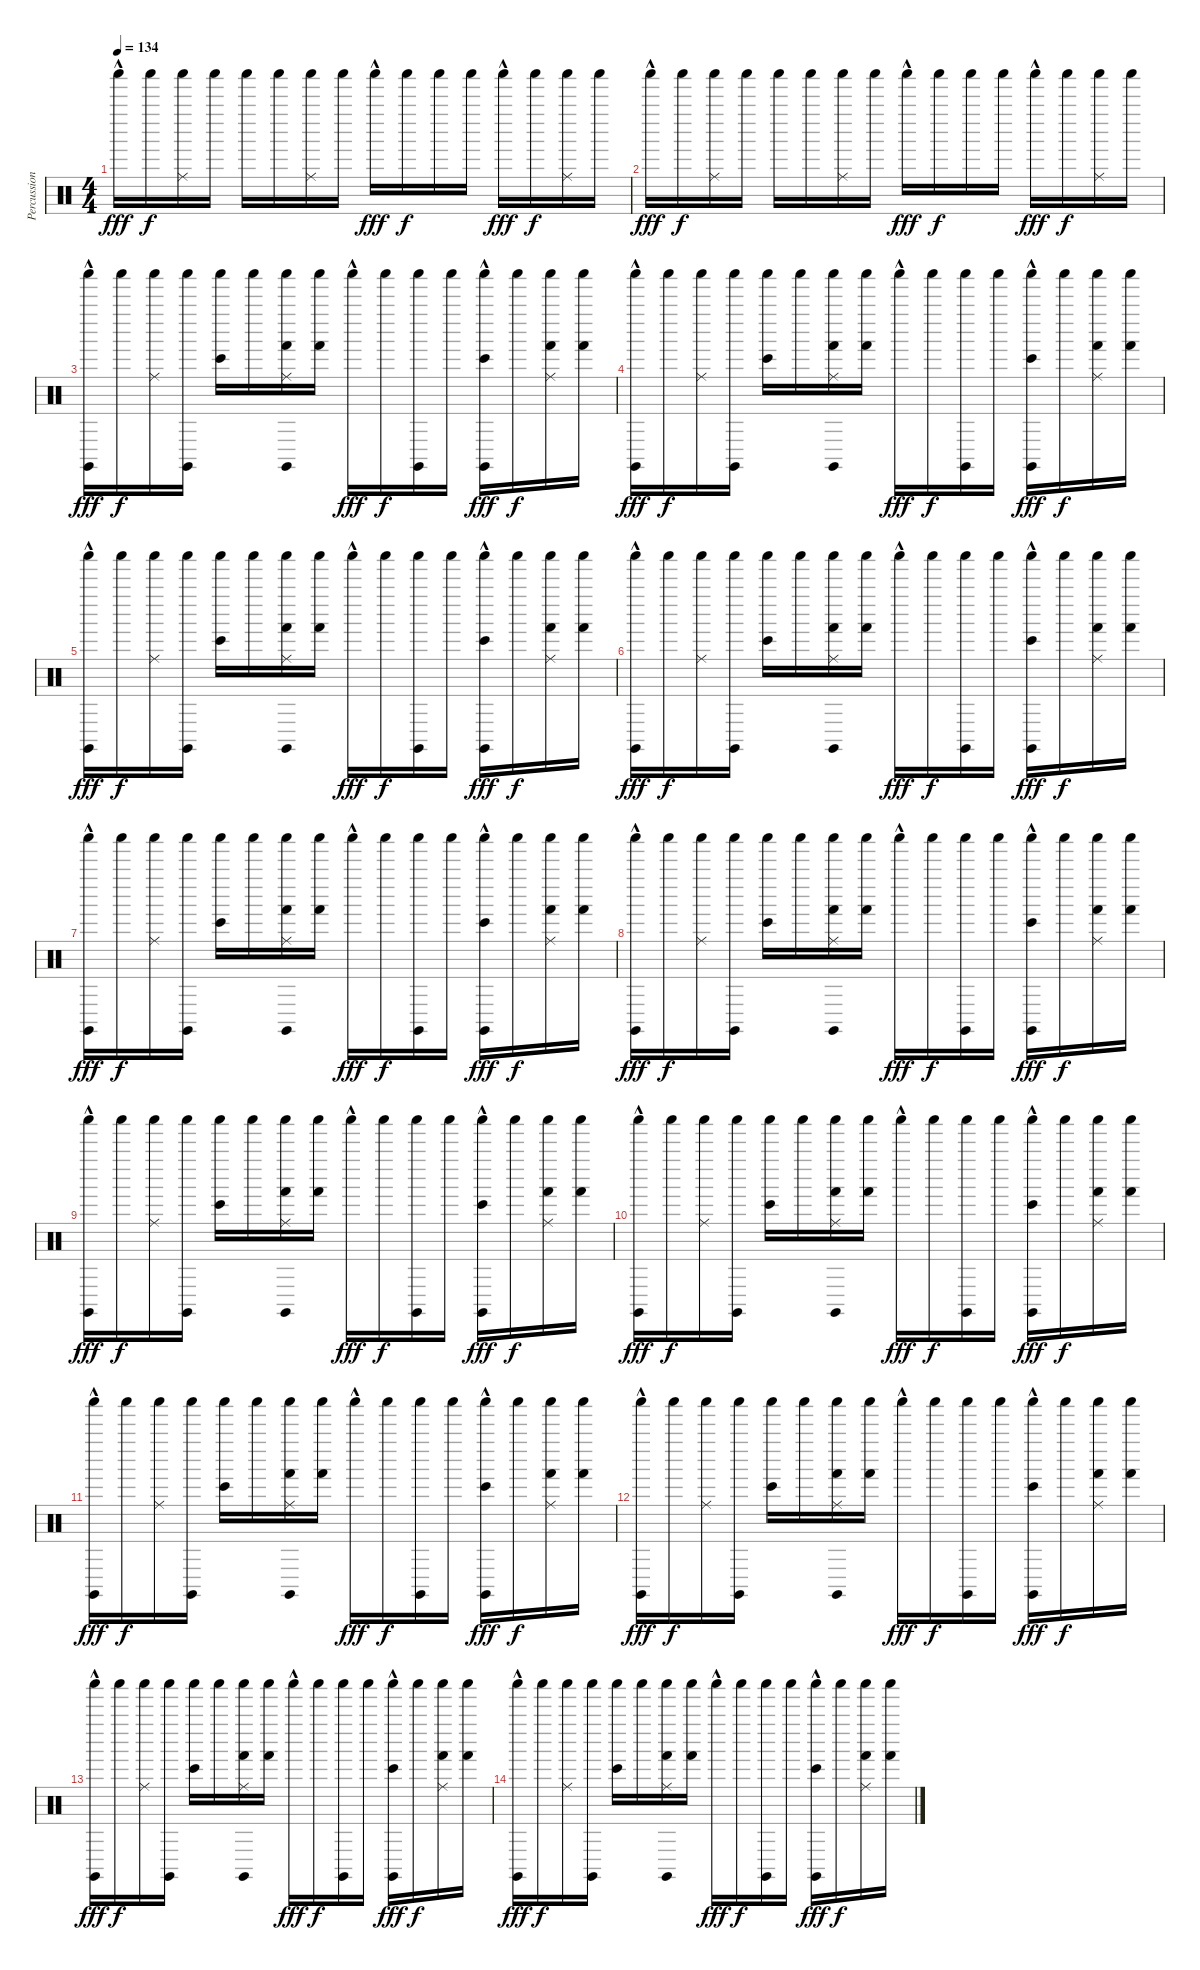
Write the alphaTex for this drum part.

\track ("Percussion" "Percussion") {instrument percussion}
\staff {score}
\articulation defaults
\ts (4 4)
\tempo 134
\clef neutral
\ks c "Shaker (hit)"{hac}.16{dy fff} "Shaker (hit)".16{dy f}
("Shaker (hit)" "Ride (middle)").16 "Shaker (hit)".16 "Shaker (hit)".16 "Shaker (hit)".16 ("Shaker (hit)" "Ride (middle)").16 "Shaker (hit)".16 "Shaker (hit)"{hac}.16{dy fff} "Shaker (hit)".16{dy f} "Shaker (hit)".16 "Shaker (hit)".16 "Shaker (hit)"{hac}.16{dy fff} "Shaker (hit)".16{dy f} ("Shaker (hit)" "Ride (middle)").16 "Shaker (hit)".16 |
"Shaker (hit)"{hac}.16{dy fff} "Shaker (hit)".16{dy f} ("Shaker (hit)" "Ride (middle)").16 "Shaker (hit)".16 "Shaker (hit)".16 "Shaker (hit)".16 ("Shaker (hit)" "Ride (middle)").16 "Shaker (hit)".16 "Shaker (hit)"{hac}.16{dy fff} "Shaker (hit)".16{dy f} "Shaker (hit)".16 "Shaker (hit)".16 "Shaker (hit)"{hac}.16{dy fff} "Shaker (hit)".16{dy f} ("Shaker (hit)" "Ride (middle)").16 "Shaker (hit)".16 |
("Shaker (hit)"{hac} "Claves (hit)").16{dy fff} "Shaker (hit)".16{dy f} ("Shaker (hit)" "Ride (middle)").16 ("Shaker (hit)" "Claves (hit)").16 ("Shaker (hit)" "Bongo High (hit)").16 "Shaker (hit)".16 ("Shaker (hit)" "Ride (middle)" "Claves (hit)" "Hand (hit)").16 ("Shaker (hit)" "Hand (hit)").16 "Shaker (hit)"{hac}.16{dy fff} "Shaker (hit)".16{dy f} ("Shaker (hit)" "Claves (hit)").16 "Shaker (hit)".16 ("Shaker (hit)"{hac} "Claves (hit)" "Bongo High (hit)").16{dy fff} "Shaker (hit)".16{dy f} ("Shaker (hit)" "Ride (middle)" "Hand (hit)").16 ("Shaker (hit)" "Hand (hit)").16 |
("Shaker (hit)"{hac} "Claves (hit)").16{dy fff} "Shaker (hit)".16{dy f} ("Shaker (hit)" "Ride (middle)").16 ("Shaker (hit)" "Claves (hit)").16 ("Shaker (hit)" "Bongo High (hit)").16 "Shaker (hit)".16 ("Shaker (hit)" "Ride (middle)" "Claves (hit)" "Hand (hit)").16 ("Shaker (hit)" "Hand (hit)").16 "Shaker (hit)"{hac}.16{dy fff} "Shaker (hit)".16{dy f} ("Shaker (hit)" "Claves (hit)").16 "Shaker (hit)".16 ("Shaker (hit)"{hac} "Claves (hit)" "Bongo High (hit)").16{dy fff} "Shaker (hit)".16{dy f} ("Shaker (hit)" "Ride (middle)" "Hand (hit)").16 ("Shaker (hit)" "Hand (hit)").16 |
("Shaker (hit)"{hac} "Claves (hit)").16{dy fff} "Shaker (hit)".16{dy f} ("Shaker (hit)" "Ride (middle)").16 ("Shaker (hit)" "Claves (hit)").16 ("Shaker (hit)" "Bongo High (hit)").16 "Shaker (hit)".16 ("Shaker (hit)" "Ride (middle)" "Claves (hit)" "Hand (hit)").16 ("Shaker (hit)" "Hand (hit)").16 "Shaker (hit)"{hac}.16{dy fff} "Shaker (hit)".16{dy f} ("Shaker (hit)" "Claves (hit)").16 "Shaker (hit)".16 ("Shaker (hit)"{hac} "Claves (hit)" "Bongo High (hit)").16{dy fff} "Shaker (hit)".16{dy f} ("Shaker (hit)" "Ride (middle)" "Hand (hit)").16 ("Shaker (hit)" "Hand (hit)").16 |
("Shaker (hit)"{hac} "Claves (hit)").16{dy fff} "Shaker (hit)".16{dy f} ("Shaker (hit)" "Ride (middle)").16 ("Shaker (hit)" "Claves (hit)").16 ("Shaker (hit)" "Bongo High (hit)").16 "Shaker (hit)".16 ("Shaker (hit)" "Ride (middle)" "Claves (hit)" "Hand (hit)").16 ("Shaker (hit)" "Hand (hit)").16 "Shaker (hit)"{hac}.16{dy fff} "Shaker (hit)".16{dy f} ("Shaker (hit)" "Claves (hit)").16 "Shaker (hit)".16 ("Shaker (hit)"{hac} "Claves (hit)" "Bongo High (hit)").16{dy fff} "Shaker (hit)".16{dy f} ("Shaker (hit)" "Ride (middle)" "Hand (hit)").16 ("Shaker (hit)" "Hand (hit)").16 |
("Shaker (hit)"{hac} "Claves (hit)").16{dy fff} "Shaker (hit)".16{dy f} ("Shaker (hit)" "Ride (middle)").16 ("Shaker (hit)" "Claves (hit)").16 ("Shaker (hit)" "Bongo High (hit)").16 "Shaker (hit)".16 ("Shaker (hit)" "Ride (middle)" "Claves (hit)" "Hand (hit)").16 ("Shaker (hit)" "Hand (hit)").16 "Shaker (hit)"{hac}.16{dy fff} "Shaker (hit)".16{dy f} ("Shaker (hit)" "Claves (hit)").16 "Shaker (hit)".16 ("Shaker (hit)"{hac} "Claves (hit)" "Bongo High (hit)").16{dy fff} "Shaker (hit)".16{dy f} ("Shaker (hit)" "Ride (middle)" "Hand (hit)").16 ("Shaker (hit)" "Hand (hit)").16 |
("Shaker (hit)"{hac} "Claves (hit)").16{dy fff} "Shaker (hit)".16{dy f} ("Shaker (hit)" "Ride (middle)").16 ("Shaker (hit)" "Claves (hit)").16 ("Shaker (hit)" "Bongo High (hit)").16 "Shaker (hit)".16 ("Shaker (hit)" "Ride (middle)" "Claves (hit)" "Hand (hit)").16 ("Shaker (hit)" "Hand (hit)").16 "Shaker (hit)"{hac}.16{dy fff} "Shaker (hit)".16{dy f} ("Shaker (hit)" "Claves (hit)").16 "Shaker (hit)".16 ("Shaker (hit)"{hac} "Claves (hit)" "Bongo High (hit)").16{dy fff} "Shaker (hit)".16{dy f} ("Shaker (hit)" "Ride (middle)" "Hand (hit)").16 ("Shaker (hit)" "Hand (hit)").16 |
("Shaker (hit)"{hac} "Claves (hit)").16{dy fff} "Shaker (hit)".16{dy f} ("Shaker (hit)" "Ride (middle)").16 ("Shaker (hit)" "Claves (hit)").16 ("Shaker (hit)" "Bongo High (hit)").16 "Shaker (hit)".16 ("Shaker (hit)" "Ride (middle)" "Claves (hit)" "Hand (hit)").16 ("Shaker (hit)" "Hand (hit)").16 "Shaker (hit)"{hac}.16{dy fff} "Shaker (hit)".16{dy f} ("Shaker (hit)" "Claves (hit)").16 "Shaker (hit)".16 ("Shaker (hit)"{hac} "Claves (hit)" "Bongo High (hit)").16{dy fff} "Shaker (hit)".16{dy f} ("Shaker (hit)" "Ride (middle)" "Hand (hit)").16 ("Shaker (hit)" "Hand (hit)").16 |
("Shaker (hit)"{hac} "Claves (hit)").16{dy fff} "Shaker (hit)".16{dy f} ("Shaker (hit)" "Ride (middle)").16 ("Shaker (hit)" "Claves (hit)").16 ("Shaker (hit)" "Bongo High (hit)").16 "Shaker (hit)".16 ("Shaker (hit)" "Ride (middle)" "Claves (hit)" "Hand (hit)").16 ("Shaker (hit)" "Hand (hit)").16 "Shaker (hit)"{hac}.16{dy fff} "Shaker (hit)".16{dy f} ("Shaker (hit)" "Claves (hit)").16 "Shaker (hit)".16 ("Shaker (hit)"{hac} "Claves (hit)" "Bongo High (hit)").16{dy fff} "Shaker (hit)".16{dy f} ("Shaker (hit)" "Ride (middle)" "Hand (hit)").16 ("Shaker (hit)" "Hand (hit)").16 |
("Shaker (hit)"{hac} "Claves (hit)").16{dy fff} "Shaker (hit)".16{dy f} ("Shaker (hit)" "Ride (middle)").16 ("Shaker (hit)" "Claves (hit)").16 ("Shaker (hit)" "Bongo High (hit)").16 "Shaker (hit)".16 ("Shaker (hit)" "Ride (middle)" "Claves (hit)" "Hand (hit)").16 ("Shaker (hit)" "Hand (hit)").16 "Shaker (hit)"{hac}.16{dy fff} "Shaker (hit)".16{dy f} ("Shaker (hit)" "Claves (hit)").16 "Shaker (hit)".16 ("Shaker (hit)"{hac} "Claves (hit)" "Bongo High (hit)").16{dy fff} "Shaker (hit)".16{dy f} ("Shaker (hit)" "Ride (middle)" "Hand (hit)").16 ("Shaker (hit)" "Hand (hit)").16 |
("Shaker (hit)"{hac} "Claves (hit)").16{dy fff} "Shaker (hit)".16{dy f} ("Shaker (hit)" "Ride (middle)").16 ("Shaker (hit)" "Claves (hit)").16 ("Shaker (hit)" "Bongo High (hit)").16 "Shaker (hit)".16 ("Shaker (hit)" "Ride (middle)" "Claves (hit)" "Hand (hit)").16 ("Shaker (hit)" "Hand (hit)").16 "Shaker (hit)"{hac}.16{dy fff} "Shaker (hit)".16{dy f} ("Shaker (hit)" "Claves (hit)").16 "Shaker (hit)".16 ("Shaker (hit)"{hac} "Claves (hit)" "Bongo High (hit)").16{dy fff} "Shaker (hit)".16{dy f} ("Shaker (hit)" "Ride (middle)" "Hand (hit)").16 ("Shaker (hit)" "Hand (hit)").16 |
("Shaker (hit)"{hac} "Claves (hit)").16{dy fff} "Shaker (hit)".16{dy f} ("Shaker (hit)" "Ride (middle)").16 ("Shaker (hit)" "Claves (hit)").16 ("Shaker (hit)" "Bongo High (hit)").16 "Shaker (hit)".16 ("Shaker (hit)" "Ride (middle)" "Claves (hit)" "Hand (hit)").16 ("Shaker (hit)" "Hand (hit)").16 "Shaker (hit)"{hac}.16{dy fff} "Shaker (hit)".16{dy f} ("Shaker (hit)" "Claves (hit)").16 "Shaker (hit)".16 ("Shaker (hit)"{hac} "Claves (hit)" "Bongo High (hit)").16{dy fff} "Shaker (hit)".16{dy f} ("Shaker (hit)" "Ride (middle)" "Hand (hit)").16 ("Shaker (hit)" "Hand (hit)").16 |
("Shaker (hit)"{hac} "Claves (hit)").16{dy fff} "Shaker (hit)".16{dy f} ("Shaker (hit)" "Ride (middle)").16 ("Shaker (hit)" "Claves (hit)").16 ("Shaker (hit)" "Bongo High (hit)").16 "Shaker (hit)".16 ("Shaker (hit)" "Ride (middle)" "Claves (hit)" "Hand (hit)").16 ("Shaker (hit)" "Hand (hit)").16 "Shaker (hit)"{hac}.16{dy fff} "Shaker (hit)".16{dy f} ("Shaker (hit)" "Claves (hit)").16 "Shaker (hit)".16 ("Shaker (hit)"{hac} "Claves (hit)" "Bongo High (hit)").16{dy fff} "Shaker (hit)".16{dy f} ("Shaker (hit)" "Ride (middle)" "Hand (hit)").16 ("Shaker (hit)" "Hand (hit)").16
